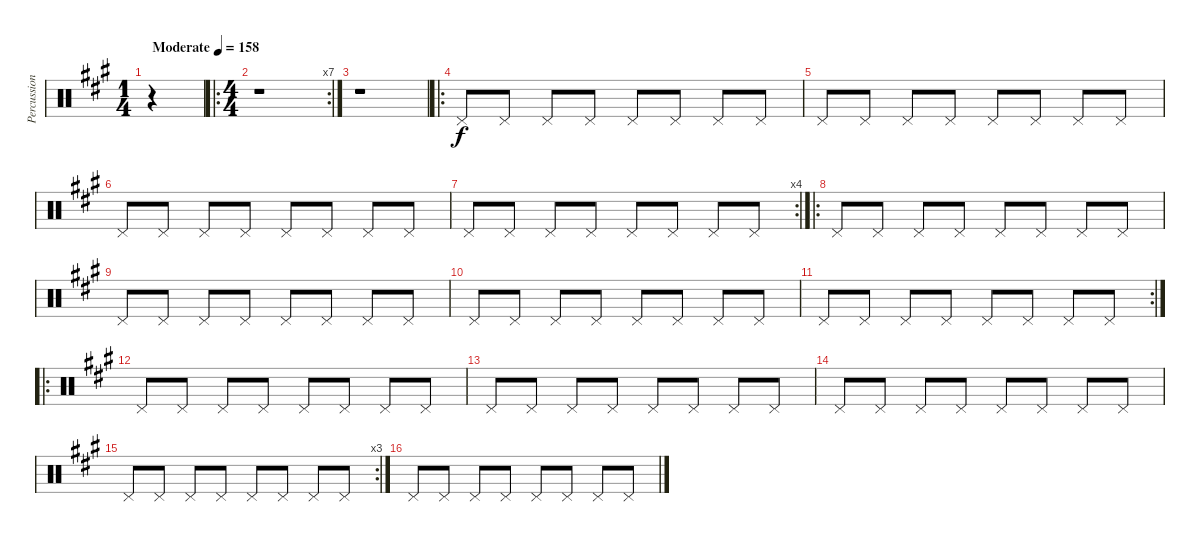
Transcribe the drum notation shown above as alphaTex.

\track ("Percussion" "Percussion") {instrument percussion}
\staff {score}
\articulation defaults
\ts (1 4)
\tempo (158 "Moderate")
\clef neutral
\ks a
r.4{dy f} |
\ro
\rc 7
\ts (4 4)
r.1 |
r.1 |
\ro "Pedal Hi-Hat (hit)".8 "Pedal Hi-Hat (hit)".8 "Pedal Hi-Hat (hit)".8 "Pedal Hi-Hat (hit)".8 "Pedal Hi-Hat (hit)".8 "Pedal Hi-Hat (hit)".8 "Pedal Hi-Hat (hit)".8 "Pedal Hi-Hat (hit)".8
|
"Pedal Hi-Hat (hit)".8 "Pedal Hi-Hat (hit)".8 "Pedal Hi-Hat (hit)".8 "Pedal Hi-Hat (hit)".8 "Pedal Hi-Hat (hit)".8 "Pedal Hi-Hat (hit)".8 "Pedal Hi-Hat (hit)".8 "Pedal Hi-Hat (hit)".8 |
"Pedal Hi-Hat (hit)".8 "Pedal Hi-Hat (hit)".8 "Pedal Hi-Hat (hit)".8 "Pedal Hi-Hat (hit)".8 "Pedal Hi-Hat (hit)".8 "Pedal Hi-Hat (hit)".8 "Pedal Hi-Hat (hit)".8 "Pedal Hi-Hat (hit)".8 |
\rc 4 "Pedal Hi-Hat (hit)".8 "Pedal Hi-Hat (hit)".8 "Pedal Hi-Hat (hit)".8 "Pedal Hi-Hat (hit)".8 "Pedal Hi-Hat (hit)".8 "Pedal Hi-Hat (hit)".8 "Pedal Hi-Hat (hit)".8 "Pedal Hi-Hat (hit)".8
|
\ro "Pedal Hi-Hat (hit)".8 "Pedal Hi-Hat (hit)".8 "Pedal Hi-Hat (hit)".8 "Pedal Hi-Hat (hit)".8 "Pedal Hi-Hat (hit)".8 "Pedal Hi-Hat (hit)".8 "Pedal Hi-Hat (hit)".8 "Pedal Hi-Hat (hit)".8
|
"Pedal Hi-Hat (hit)".8 "Pedal Hi-Hat (hit)".8 "Pedal Hi-Hat (hit)".8 "Pedal Hi-Hat (hit)".8 "Pedal Hi-Hat (hit)".8 "Pedal Hi-Hat (hit)".8 "Pedal Hi-Hat (hit)".8 "Pedal Hi-Hat (hit)".8 |
"Pedal Hi-Hat (hit)".8 "Pedal Hi-Hat (hit)".8 "Pedal Hi-Hat (hit)".8 "Pedal Hi-Hat (hit)".8 "Pedal Hi-Hat (hit)".8 "Pedal Hi-Hat (hit)".8 "Pedal Hi-Hat (hit)".8 "Pedal Hi-Hat (hit)".8 |
\rc 2 "Pedal Hi-Hat (hit)".8 "Pedal Hi-Hat (hit)".8 "Pedal Hi-Hat (hit)".8 "Pedal Hi-Hat (hit)".8 "Pedal Hi-Hat (hit)".8 "Pedal Hi-Hat (hit)".8 "Pedal Hi-Hat (hit)".8 "Pedal Hi-Hat (hit)".8
|
\ro "Pedal Hi-Hat (hit)".8 "Pedal Hi-Hat (hit)".8 "Pedal Hi-Hat (hit)".8 "Pedal Hi-Hat (hit)".8 "Pedal Hi-Hat (hit)".8 "Pedal Hi-Hat (hit)".8 "Pedal Hi-Hat (hit)".8 "Pedal Hi-Hat (hit)".8
|
"Pedal Hi-Hat (hit)".8 "Pedal Hi-Hat (hit)".8 "Pedal Hi-Hat (hit)".8 "Pedal Hi-Hat (hit)".8 "Pedal Hi-Hat (hit)".8 "Pedal Hi-Hat (hit)".8 "Pedal Hi-Hat (hit)".8 "Pedal Hi-Hat (hit)".8 |
"Pedal Hi-Hat (hit)".8 "Pedal Hi-Hat (hit)".8 "Pedal Hi-Hat (hit)".8 "Pedal Hi-Hat (hit)".8 "Pedal Hi-Hat (hit)".8 "Pedal Hi-Hat (hit)".8 "Pedal Hi-Hat (hit)".8 "Pedal Hi-Hat (hit)".8 |
\rc 3 "Pedal Hi-Hat (hit)".8 "Pedal Hi-Hat (hit)".8 "Pedal Hi-Hat (hit)".8 "Pedal Hi-Hat (hit)".8 "Pedal Hi-Hat (hit)".8 "Pedal Hi-Hat (hit)".8 "Pedal Hi-Hat (hit)".8 "Pedal Hi-Hat (hit)".8
|
"Pedal Hi-Hat (hit)".8 "Pedal Hi-Hat (hit)".8 "Pedal Hi-Hat (hit)".8 "Pedal Hi-Hat (hit)".8 "Pedal Hi-Hat (hit)".8 "Pedal Hi-Hat (hit)".8 "Pedal Hi-Hat (hit)".8 "Pedal Hi-Hat (hit)".8
